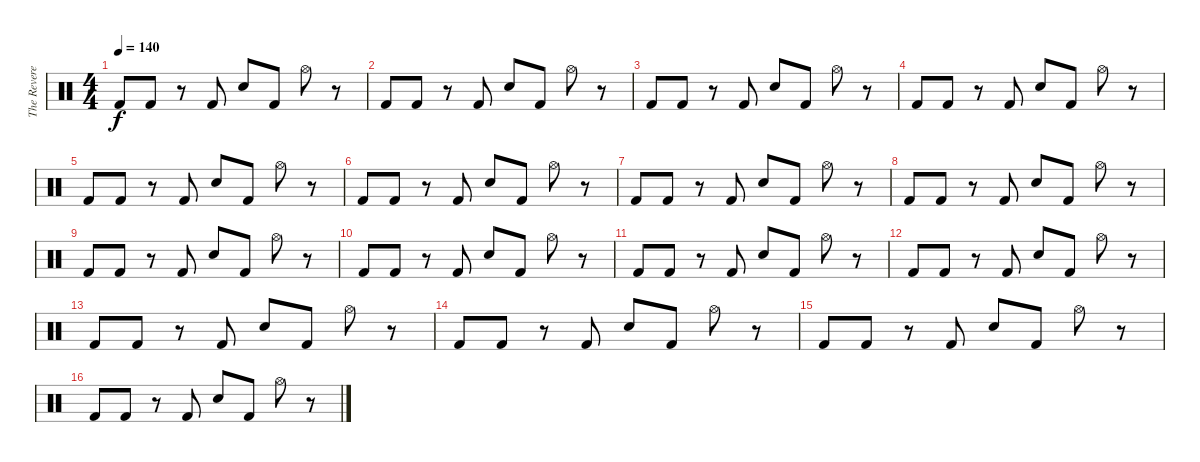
\track ("The Reverend" "The Revere") {instrument percussion}
\staff {score}
\articulation defaults
\ts (4 4)
\tempo 140
\clef neutral
\ks c "Kick (hit) 2".8{dy f} "Kick (hit) 2".8
r.8 "Kick (hit) 2".8 "Snare (hit) 2".8 "Kick (hit) 2".8 "Hi-Hat (open)".8 r.8 |
"Kick (hit) 2".8 "Kick (hit) 2".8 r.8 "Kick (hit) 2".8 "Snare (hit) 2".8 "Kick (hit) 2".8 "Hi-Hat (open)".8 r.8 |
"Kick (hit) 2".8 "Kick (hit) 2".8 r.8 "Kick (hit) 2".8 "Snare (hit) 2".8 "Kick (hit) 2".8 "Hi-Hat (open)".8 r.8 |
"Kick (hit) 2".8 "Kick (hit) 2".8 r.8 "Kick (hit) 2".8 "Snare (hit) 2".8 "Kick (hit) 2".8 "Hi-Hat (open)".8 r.8 |
"Kick (hit) 2".8 "Kick (hit) 2".8 r.8 "Kick (hit) 2".8 "Snare (hit) 2".8 "Kick (hit) 2".8 "Hi-Hat (open)".8 r.8 |
"Kick (hit) 2".8 "Kick (hit) 2".8 r.8 "Kick (hit) 2".8 "Snare (hit) 2".8 "Kick (hit) 2".8 "Hi-Hat (open)".8 r.8 |
"Kick (hit) 2".8 "Kick (hit) 2".8 r.8 "Kick (hit) 2".8 "Snare (hit) 2".8 "Kick (hit) 2".8 "Hi-Hat (open)".8 r.8 |
"Kick (hit) 2".8 "Kick (hit) 2".8 r.8 "Kick (hit) 2".8 "Snare (hit) 2".8 "Kick (hit) 2".8 "Hi-Hat (open)".8 r.8 |
"Kick (hit) 2".8 "Kick (hit) 2".8 r.8 "Kick (hit) 2".8 "Snare (hit) 2".8 "Kick (hit) 2".8 "Hi-Hat (open)".8 r.8 |
"Kick (hit) 2".8 "Kick (hit) 2".8 r.8 "Kick (hit) 2".8 "Snare (hit) 2".8 "Kick (hit) 2".8 "Hi-Hat (open)".8 r.8 |
"Kick (hit) 2".8 "Kick (hit) 2".8 r.8 "Kick (hit) 2".8 "Snare (hit) 2".8 "Kick (hit) 2".8 "Hi-Hat (open)".8 r.8 |
"Kick (hit) 2".8 "Kick (hit) 2".8 r.8 "Kick (hit) 2".8 "Snare (hit) 2".8 "Kick (hit) 2".8 "Hi-Hat (open)".8 r.8 |
"Kick (hit) 2".8 "Kick (hit) 2".8 r.8 "Kick (hit) 2".8 "Snare (hit) 2".8 "Kick (hit) 2".8 "Hi-Hat (open)".8 r.8 |
"Kick (hit) 2".8 "Kick (hit) 2".8 r.8 "Kick (hit) 2".8 "Snare (hit) 2".8 "Kick (hit) 2".8 "Hi-Hat (open)".8 r.8 |
"Kick (hit) 2".8 "Kick (hit) 2".8 r.8 "Kick (hit) 2".8 "Snare (hit) 2".8 "Kick (hit) 2".8 "Hi-Hat (open)".8 r.8 |
"Kick (hit) 2".8 "Kick (hit) 2".8 r.8 "Kick (hit) 2".8 "Snare (hit) 2".8 "Kick (hit) 2".8 "Hi-Hat (open)".8 r.8
